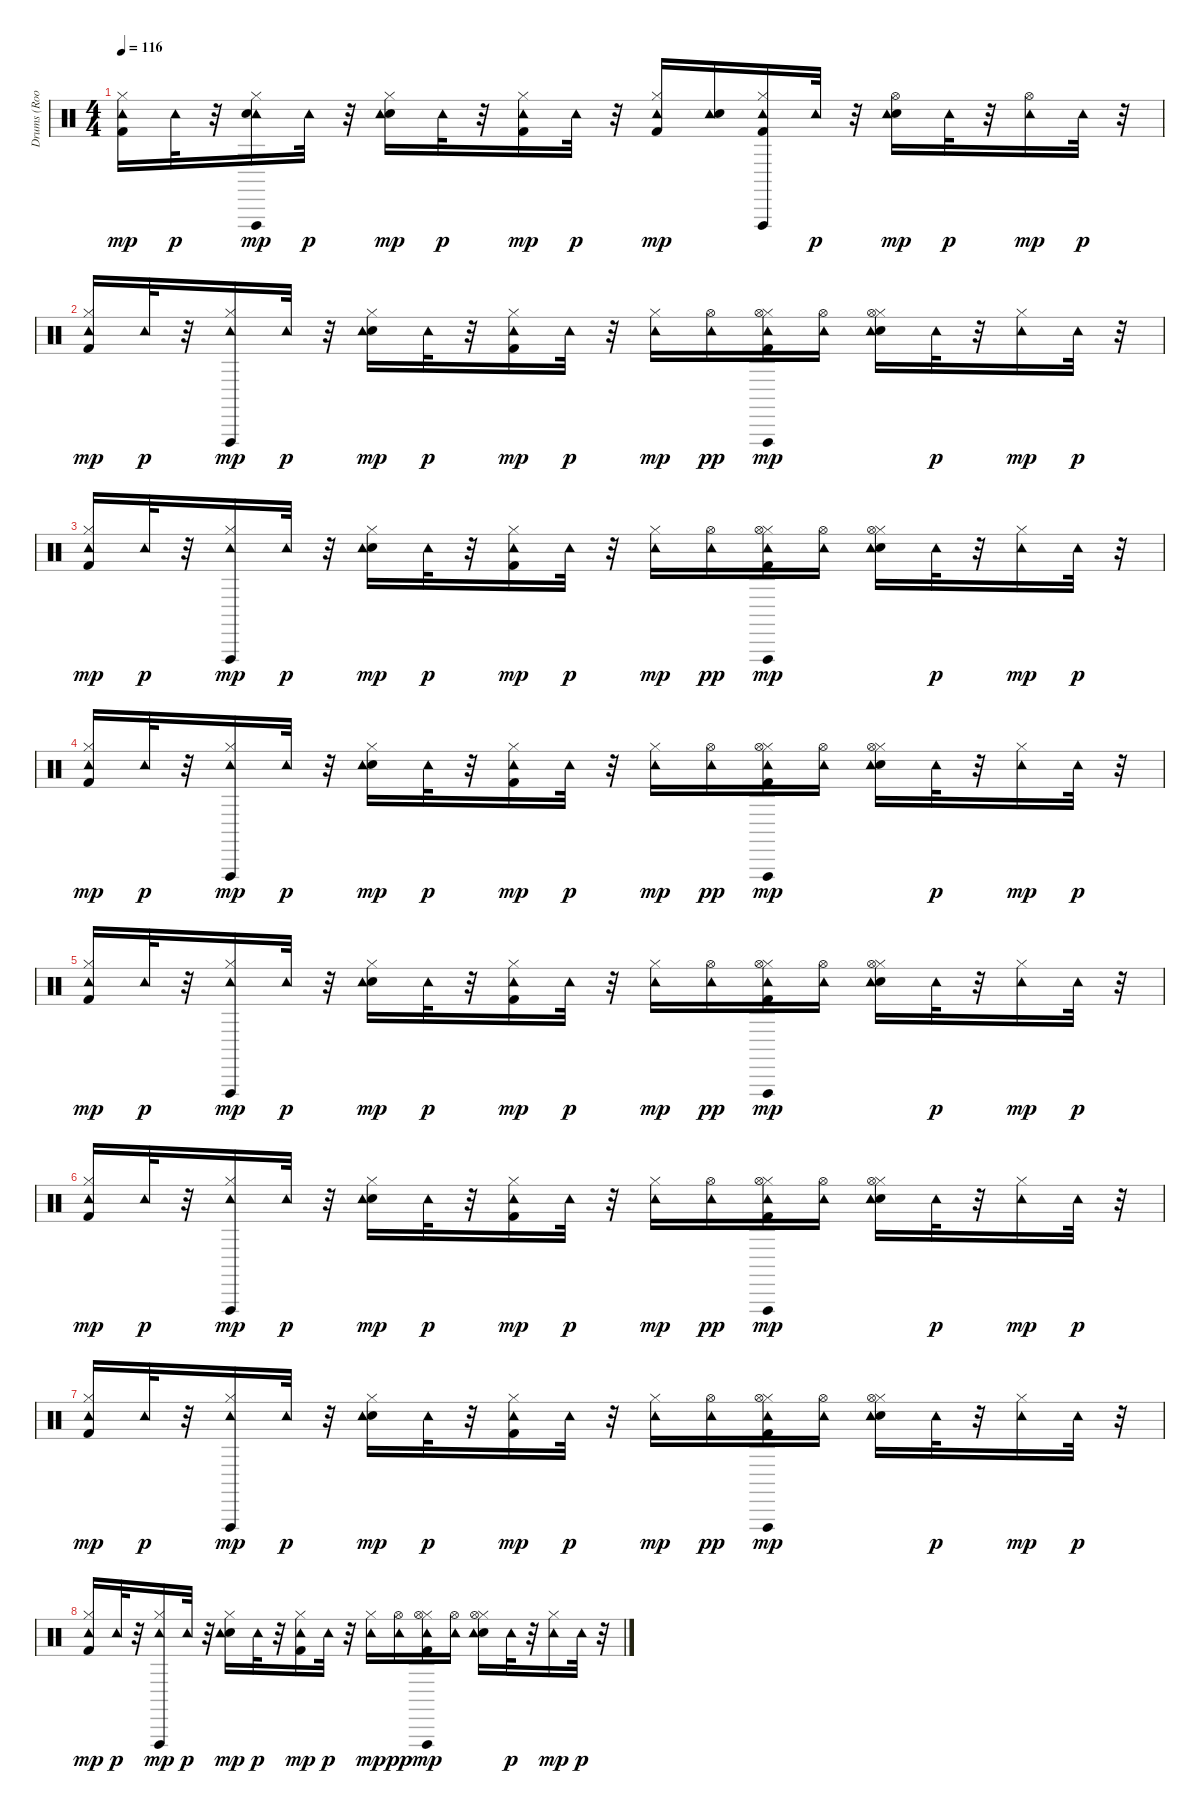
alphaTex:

\track ("Drums (Room Kit)    " "Drums (Roo") {instrument percussion}
\staff {score}
\articulation defaults
\ts (4 4)
\tempo 116
\clef neutral
\ks c
("Hi-Hat (closed)" "Kick (hit) 2" "Tambourine (hit)").16{dy mp} "Tambourine (hit)".32{dy p} r.32 ("Hi-Hat (closed)" "Tambourine (hit)" "Vibraslap (hit)" "Snare (hit) 2").16{dy mp} "Tambourine (hit)".32{dy p} r.32 ("Hi-Hat (closed)" "Snare (hit) 2" "Tambourine (hit)").16{dy mp} "Tambourine (hit)".32{dy p} r.32 ("Kick (hit) 2" "Tambourine (hit)" "Hi-Hat (closed)").16{dy mp} "Tambourine (hit)".32{dy p} r.32 ("Hi-Hat (closed)" "Tambourine (hit)" "Kick (hit) 2").16{dy mp} ("Tambourine (hit)" "Snare (hit) 2").16 ("Kick (hit) 2" "Tambourine (hit)" "Vibraslap (hit)" "Hi-Hat (closed)").16 "Tambourine (hit)".32{dy p} r.32 ("Snare (hit) 2" "Tambourine (hit)" "Hi-Hat (open)").16{dy mp} "Tambourine (hit)".32{dy p} r.32 ("Tambourine (hit)" "Hi-Hat (open)").16{dy mp} "Tambourine (hit)".32{dy p} r.32 |
("Kick (hit) 2" "Hi-Hat (closed)" "Tambourine (hit)").16{dy mp} "Tambourine (hit)".32{dy p} r.32 ("Hi-Hat (closed)" "Tambourine (hit)" "Vibraslap (hit)").16{dy mp} "Tambourine (hit)".32{dy p} r.32 ("Snare (hit) 2" "Hi-Hat (closed)" "Tambourine (hit)").16{dy mp} "Tambourine (hit)".32{dy p} r.32 ("Kick (hit) 2" "Hi-Hat (closed)" "Tambourine (hit)").16{dy mp} "Tambourine (hit)".32{dy p} r.32 ("Hi-Hat (closed)" "Tambourine (hit)").16{dy mp} ("Tambourine (hit)" "Hi-Hat (open)").16{dy pp} ("Kick (hit) 2" "Hi-Hat (closed)" "Tambourine (hit)" "Hi-Hat (open)" "Vibraslap (hit)").16{dy mp} ("Tambourine (hit)" "Hi-Hat (open)").16 ("Snare (hit) 2" "Hi-Hat (closed)" "Tambourine (hit)" "Hi-Hat (open)").16 "Tambourine (hit)".32{dy p} r.32 ("Hi-Hat (closed)" "Tambourine (hit)").16{dy mp} "Tambourine (hit)".32{dy p} r.32 |
("Hi-Hat (closed)" "Kick (hit) 2" "Tambourine (hit)").16{dy mp} "Tambourine (hit)".32{dy p} r.32 ("Hi-Hat (closed)" "Tambourine (hit)" "Vibraslap (hit)").16{dy mp} "Tambourine (hit)".32{dy p} r.32 ("Hi-Hat (closed)" "Snare (hit) 2" "Tambourine (hit)").16{dy mp} "Tambourine (hit)".32{dy p} r.32 ("Hi-Hat (closed)" "Kick (hit) 2" "Tambourine (hit)").16{dy mp} "Tambourine (hit)".32{dy p} r.32 ("Hi-Hat (closed)" "Tambourine (hit)").16{dy mp} ("Tambourine (hit)" "Hi-Hat (open)").16{dy pp} ("Hi-Hat (closed)" "Kick (hit) 2" "Tambourine (hit)" "Hi-Hat (open)" "Vibraslap (hit)").16{dy mp} ("Tambourine (hit)" "Hi-Hat (open)").16 ("Hi-Hat (closed)" "Snare (hit) 2" "Tambourine (hit)" "Hi-Hat (open)").16 "Tambourine (hit)".32{dy p} r.32 ("Hi-Hat (closed)" "Tambourine (hit)").16{dy mp} "Tambourine (hit)".32{dy p} r.32 |
("Kick (hit) 2" "Hi-Hat (closed)" "Tambourine (hit)").16{dy mp} "Tambourine (hit)".32{dy p} r.32 ("Hi-Hat (closed)" "Tambourine (hit)" "Vibraslap (hit)").16{dy mp} "Tambourine (hit)".32{dy p} r.32 ("Snare (hit) 2" "Hi-Hat (closed)" "Tambourine (hit)").16{dy mp} "Tambourine (hit)".32{dy p} r.32 ("Kick (hit) 2" "Hi-Hat (closed)" "Tambourine (hit)").16{dy mp} "Tambourine (hit)".32{dy p} r.32 ("Hi-Hat (closed)" "Tambourine (hit)").16{dy mp} ("Tambourine (hit)" "Hi-Hat (open)").16{dy pp} ("Kick (hit) 2" "Hi-Hat (closed)" "Tambourine (hit)" "Hi-Hat (open)" "Vibraslap (hit)").16{dy mp} ("Tambourine (hit)" "Hi-Hat (open)").16 ("Snare (hit) 2" "Hi-Hat (closed)" "Tambourine (hit)" "Hi-Hat (open)").16 "Tambourine (hit)".32{dy p} r.32 ("Hi-Hat (closed)" "Tambourine (hit)").16{dy mp} "Tambourine (hit)".32{dy p} r.32 |
("Hi-Hat (closed)" "Kick (hit) 2" "Tambourine (hit)").16{dy mp} "Tambourine (hit)".32{dy p} r.32 ("Hi-Hat (closed)" "Tambourine (hit)" "Vibraslap (hit)").16{dy mp} "Tambourine (hit)".32{dy p} r.32 ("Hi-Hat (closed)" "Snare (hit) 2" "Tambourine (hit)").16{dy mp} "Tambourine (hit)".32{dy p} r.32 ("Hi-Hat (closed)" "Kick (hit) 2" "Tambourine (hit)").16{dy mp} "Tambourine (hit)".32{dy p} r.32 ("Hi-Hat (closed)" "Tambourine (hit)").16{dy mp} ("Tambourine (hit)" "Hi-Hat (open)").16{dy pp} ("Hi-Hat (closed)" "Kick (hit) 2" "Tambourine (hit)" "Hi-Hat (open)" "Vibraslap (hit)").16{dy mp} ("Tambourine (hit)" "Hi-Hat (open)").16 ("Hi-Hat (closed)" "Snare (hit) 2" "Tambourine (hit)" "Hi-Hat (open)").16 "Tambourine (hit)".32{dy p} r.32 ("Hi-Hat (closed)" "Tambourine (hit)").16{dy mp} "Tambourine (hit)".32{dy p} r.32 |
("Kick (hit) 2" "Hi-Hat (closed)" "Tambourine (hit)").16{dy mp} "Tambourine (hit)".32{dy p} r.32 ("Hi-Hat (closed)" "Tambourine (hit)" "Vibraslap (hit)").16{dy mp} "Tambourine (hit)".32{dy p} r.32 ("Snare (hit) 2" "Hi-Hat (closed)" "Tambourine (hit)").16{dy mp} "Tambourine (hit)".32{dy p} r.32 ("Kick (hit) 2" "Hi-Hat (closed)" "Tambourine (hit)").16{dy mp} "Tambourine (hit)".32{dy p} r.32 ("Hi-Hat (closed)" "Tambourine (hit)").16{dy mp} ("Tambourine (hit)" "Hi-Hat (open)").16{dy pp} ("Kick (hit) 2" "Hi-Hat (closed)" "Tambourine (hit)" "Hi-Hat (open)" "Vibraslap (hit)").16{dy mp} ("Tambourine (hit)" "Hi-Hat (open)").16 ("Snare (hit) 2" "Hi-Hat (closed)" "Tambourine (hit)" "Hi-Hat (open)").16 "Tambourine (hit)".32{dy p} r.32 ("Hi-Hat (closed)" "Tambourine (hit)").16{dy mp} "Tambourine (hit)".32{dy p} r.32 |
("Hi-Hat (closed)" "Kick (hit) 2" "Tambourine (hit)").16{dy mp} "Tambourine (hit)".32{dy p} r.32 ("Hi-Hat (closed)" "Tambourine (hit)" "Vibraslap (hit)").16{dy mp} "Tambourine (hit)".32{dy p} r.32 ("Hi-Hat (closed)" "Snare (hit) 2" "Tambourine (hit)").16{dy mp} "Tambourine (hit)".32{dy p} r.32 ("Hi-Hat (closed)" "Kick (hit) 2" "Tambourine (hit)").16{dy mp} "Tambourine (hit)".32{dy p} r.32 ("Hi-Hat (closed)" "Tambourine (hit)").16{dy mp} ("Tambourine (hit)" "Hi-Hat (open)").16{dy pp} ("Hi-Hat (closed)" "Kick (hit) 2" "Tambourine (hit)" "Hi-Hat (open)" "Vibraslap (hit)").16{dy mp} ("Tambourine (hit)" "Hi-Hat (open)").16 ("Hi-Hat (closed)" "Snare (hit) 2" "Tambourine (hit)" "Hi-Hat (open)").16 "Tambourine (hit)".32{dy p} r.32 ("Hi-Hat (closed)" "Tambourine (hit)").16{dy mp} "Tambourine (hit)".32{dy p} r.32 |
("Kick (hit) 2" "Hi-Hat (closed)" "Tambourine (hit)").16{dy mp} "Tambourine (hit)".32{dy p} r.32 ("Hi-Hat (closed)" "Tambourine (hit)" "Vibraslap (hit)").16{dy mp} "Tambourine (hit)".32{dy p} r.32 ("Snare (hit) 2" "Hi-Hat (closed)" "Tambourine (hit)").16{dy mp} "Tambourine (hit)".32{dy p} r.32 ("Kick (hit) 2" "Hi-Hat (closed)" "Tambourine (hit)").16{dy mp} "Tambourine (hit)".32{dy p} r.32 ("Hi-Hat (closed)" "Tambourine (hit)").16{dy mp} ("Tambourine (hit)" "Hi-Hat (open)").16{dy pp} ("Kick (hit) 2" "Hi-Hat (closed)" "Tambourine (hit)" "Hi-Hat (open)" "Vibraslap (hit)").16{dy mp} ("Tambourine (hit)" "Hi-Hat (open)").16 ("Snare (hit) 2" "Hi-Hat (closed)" "Tambourine (hit)" "Hi-Hat (open)").16 "Tambourine (hit)".32{dy p} r.32 ("Hi-Hat (closed)" "Tambourine (hit)").16{dy mp} "Tambourine (hit)".32{dy p} r.32
